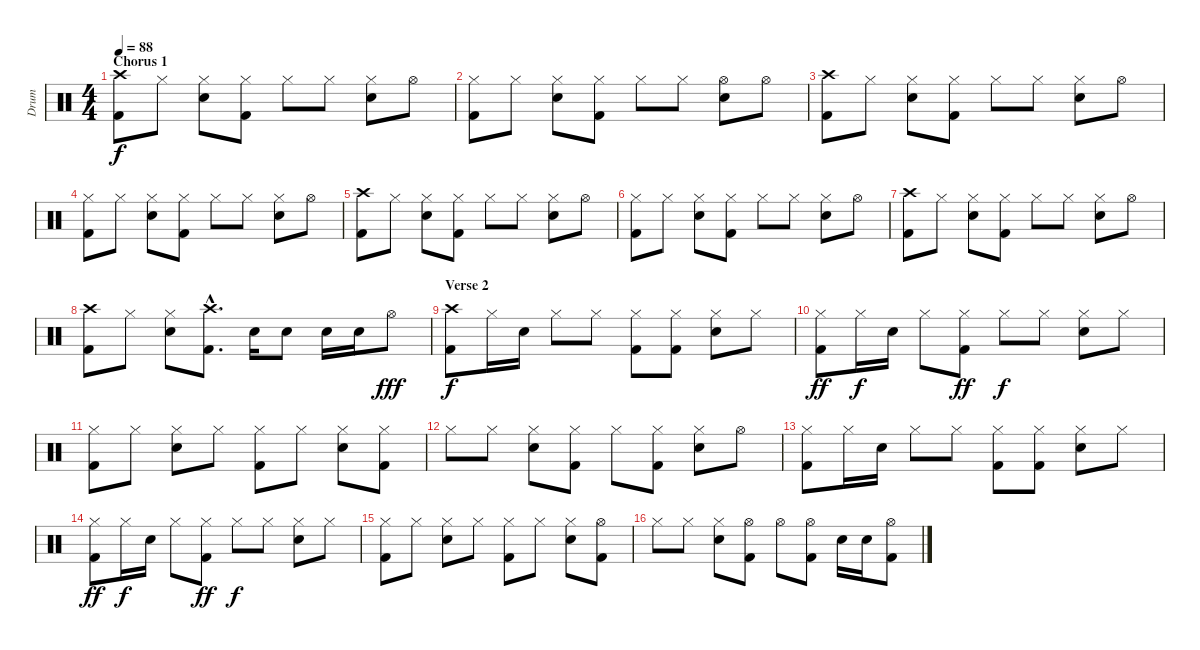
\track ("Drum" "Drum") {instrument percussion}
\staff {score}
\articulation defaults
\ts (4 4)
\section ("" "Chorus 1")
\tempo 88
\clef neutral
\ks c
("Crash high (hit)" "Kick (hit) 2").8{dy f} "Hi-Hat (closed)".8 ("Hi-Hat (closed)" "Electric Snare (hit)").8 ("Hi-Hat (closed)" "Kick (hit) 2").8 "Hi-Hat (closed)".8 "Hi-Hat (closed)".8 ("Hi-Hat (closed)" "Electric Snare (hit)").8 "Hi-Hat (open)".8 |
("Hi-Hat (closed)" "Kick (hit) 2").8 "Hi-Hat (closed)".8 ("Hi-Hat (closed)" "Electric Snare (hit)").8 ("Hi-Hat (closed)" "Kick (hit) 2").8 "Hi-Hat (closed)".8 "Hi-Hat (closed)".8 ("Hi-Hat (open)" "Electric Snare (hit)").8 "Hi-Hat (open)".8 |
("Crash high (hit)" "Kick (hit) 2").8 "Hi-Hat (closed)".8 ("Hi-Hat (closed)" "Electric Snare (hit)").8 ("Hi-Hat (closed)" "Kick (hit) 2").8 "Hi-Hat (closed)".8 "Hi-Hat (closed)".8 ("Hi-Hat (closed)" "Electric Snare (hit)").8 "Hi-Hat (open)".8 |
("Hi-Hat (closed)" "Kick (hit) 2").8 "Hi-Hat (closed)".8 ("Hi-Hat (closed)" "Electric Snare (hit)").8 ("Hi-Hat (closed)" "Kick (hit) 2").8 "Hi-Hat (closed)".8 "Hi-Hat (closed)".8 ("Hi-Hat (closed)" "Electric Snare (hit)").8 "Hi-Hat (open)".8 |
("Crash high (hit)" "Kick (hit) 2").8 "Hi-Hat (closed)".8 ("Hi-Hat (closed)" "Electric Snare (hit)").8 ("Hi-Hat (closed)" "Kick (hit) 2").8 "Hi-Hat (closed)".8 "Hi-Hat (closed)".8 ("Hi-Hat (closed)" "Electric Snare (hit)").8 "Hi-Hat (open)".8 |
("Hi-Hat (closed)" "Kick (hit) 2").8 "Hi-Hat (closed)".8 ("Hi-Hat (closed)" "Electric Snare (hit)").8 ("Hi-Hat (closed)" "Kick (hit) 2").8 "Hi-Hat (closed)".8 "Hi-Hat (closed)".8 ("Hi-Hat (closed)" "Electric Snare (hit)").8 "Hi-Hat (open)".8 |
("Crash high (hit)" "Kick (hit) 2").8 "Hi-Hat (closed)".8 ("Hi-Hat (closed)" "Electric Snare (hit)").8 ("Hi-Hat (closed)" "Kick (hit) 2").8 "Hi-Hat (closed)".8 "Hi-Hat (closed)".8 ("Hi-Hat (closed)" "Electric Snare (hit)").8 "Hi-Hat (open)".8 |
("Crash high (hit)" "Kick (hit) 2").8 "Hi-Hat (closed)".8 ("Hi-Hat (closed)" "Electric Snare (hit)").8 ("Crash high (hit)"{hac} "Kick (hit) 2"{hac}).8{d} "Electric Snare (hit)".16 "Electric Snare (hit)".8 "Electric Snare (hit)".16 "Electric Snare (hit)".16 "Hi-Hat (open)".8{dy fff} |
\section ("" "Verse 2")
("Crash high (hit)" "Kick (hit) 2").8{dy f} "Hi-Hat (closed)".16 "Electric Snare (hit)".16 "Hi-Hat (closed)".8 "Hi-Hat (closed)".8 ("Hi-Hat (closed)" "Kick (hit) 2").8 ("Hi-Hat (closed)" "Kick (hit) 2").8 ("Hi-Hat (closed)" "Electric Snare (hit)").8 "Hi-Hat (closed)".8 |
("Hi-Hat (closed)" "Kick (hit) 2").8{dy ff} "Hi-Hat (closed)".16{dy f} "Electric Snare (hit)".16 "Hi-Hat (closed)".8 ("Hi-Hat (closed)" "Kick (hit) 2").8{dy ff} "Hi-Hat (closed)".8{dy f} "Hi-Hat (closed)".8 ("Hi-Hat (closed)" "Electric Snare (hit)").8 "Hi-Hat (closed)".8 |
("Hi-Hat (closed)" "Kick (hit) 2").8 "Hi-Hat (closed)".8 ("Hi-Hat (closed)" "Electric Snare (hit)").8 "Hi-Hat (closed)".8 ("Hi-Hat (closed)" "Kick (hit) 2").8 "Hi-Hat (closed)".8 ("Hi-Hat (closed)" "Electric Snare (hit)").8 ("Hi-Hat (closed)" "Kick (hit) 2").8 |
"Hi-Hat (closed)".8 "Hi-Hat (closed)".8 ("Hi-Hat (closed)" "Electric Snare (hit)").8 ("Hi-Hat (closed)" "Kick (hit) 2").8 "Hi-Hat (closed)".8 ("Hi-Hat (closed)" "Kick (hit) 2").8 ("Hi-Hat (closed)" "Electric Snare (hit)").8 "Hi-Hat (open)".8 |
("Hi-Hat (closed)" "Kick (hit) 2").8 "Hi-Hat (closed)".16 "Electric Snare (hit)".16 "Hi-Hat (closed)".8 "Hi-Hat (closed)".8 ("Hi-Hat (closed)" "Kick (hit) 2").8 ("Hi-Hat (closed)" "Kick (hit) 2").8 ("Hi-Hat (closed)" "Electric Snare (hit)").8 "Hi-Hat (closed)".8 |
("Hi-Hat (closed)" "Kick (hit) 2").8{dy ff} "Hi-Hat (closed)".16{dy f} "Electric Snare (hit)".16 "Hi-Hat (closed)".8 ("Hi-Hat (closed)" "Kick (hit) 2").8{dy ff} "Hi-Hat (closed)".8{dy f} "Hi-Hat (closed)".8 ("Hi-Hat (closed)" "Electric Snare (hit)").8 "Hi-Hat (closed)".8 |
("Hi-Hat (closed)" "Kick (hit) 2").8 "Hi-Hat (closed)".8 ("Hi-Hat (closed)" "Electric Snare (hit)").8 "Hi-Hat (closed)".8 ("Hi-Hat (closed)" "Kick (hit) 2").8 "Hi-Hat (closed)".8 ("Hi-Hat (closed)" "Electric Snare (hit)").8 ("Hi-Hat (open)" "Kick (hit) 2").8 |
"Hi-Hat (closed)".8 "Hi-Hat (closed)".8 ("Hi-Hat (closed)" "Electric Snare (hit)").8 ("Hi-Hat (open)" "Kick (hit) 2").8 "Hi-Hat (open)".8 ("Hi-Hat (open)" "Kick (hit) 2").8 "Electric Snare (hit)".16 "Electric Snare (hit)".16 ("Hi-Hat (open)" "Kick (hit) 2").8
